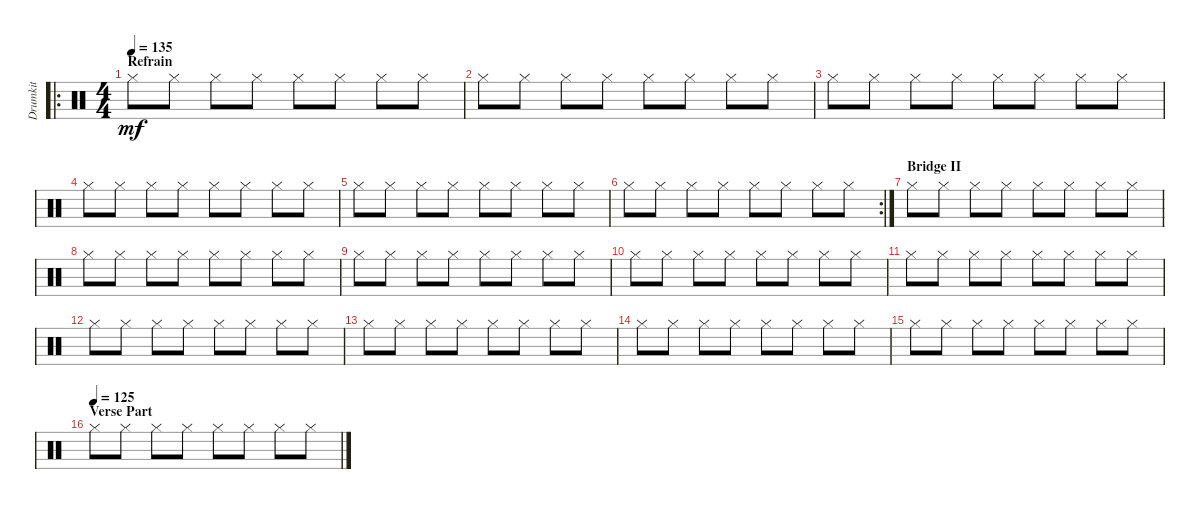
\track ("Drumkit" "Drumkit") {mute instrument percussion}
\staff {score}
\articulation defaults
\ro
\ts (4 4)
\section ("" "Refrain")
\tempo 135
\clef neutral
\ks c "Hi-Hat (closed)".8{dy mf} "Hi-Hat (closed)".8 "Hi-Hat (closed)".8 "Hi-Hat (closed)".8 "Hi-Hat (closed)".8 "Hi-Hat (closed)".8 "Hi-Hat (closed)".8 "Hi-Hat (closed)".8
|
"Hi-Hat (closed)".8 "Hi-Hat (closed)".8 "Hi-Hat (closed)".8 "Hi-Hat (closed)".8 "Hi-Hat (closed)".8 "Hi-Hat (closed)".8 "Hi-Hat (closed)".8 "Hi-Hat (closed)".8 |
"Hi-Hat (closed)".8 "Hi-Hat (closed)".8 "Hi-Hat (closed)".8 "Hi-Hat (closed)".8 "Hi-Hat (closed)".8 "Hi-Hat (closed)".8 "Hi-Hat (closed)".8 "Hi-Hat (closed)".8 |
"Hi-Hat (closed)".8 "Hi-Hat (closed)".8 "Hi-Hat (closed)".8 "Hi-Hat (closed)".8 "Hi-Hat (closed)".8 "Hi-Hat (closed)".8 "Hi-Hat (closed)".8 "Hi-Hat (closed)".8 |
"Hi-Hat (closed)".8 "Hi-Hat (closed)".8 "Hi-Hat (closed)".8 "Hi-Hat (closed)".8 "Hi-Hat (closed)".8 "Hi-Hat (closed)".8 "Hi-Hat (closed)".8 "Hi-Hat (closed)".8 |
\rc 2 "Hi-Hat (closed)".8 "Hi-Hat (closed)".8 "Hi-Hat (closed)".8 "Hi-Hat (closed)".8 "Hi-Hat (closed)".8 "Hi-Hat (closed)".8 "Hi-Hat (closed)".8 "Hi-Hat (closed)".8
|
\section ("" "Bridge II")
"Hi-Hat (closed)".8 "Hi-Hat (closed)".8 "Hi-Hat (closed)".8 "Hi-Hat (closed)".8 "Hi-Hat (closed)".8 "Hi-Hat (closed)".8 "Hi-Hat (closed)".8 "Hi-Hat (closed)".8 |
"Hi-Hat (closed)".8 "Hi-Hat (closed)".8 "Hi-Hat (closed)".8 "Hi-Hat (closed)".8 "Hi-Hat (closed)".8 "Hi-Hat (closed)".8 "Hi-Hat (closed)".8 "Hi-Hat (closed)".8 |
"Hi-Hat (closed)".8 "Hi-Hat (closed)".8 "Hi-Hat (closed)".8 "Hi-Hat (closed)".8 "Hi-Hat (closed)".8 "Hi-Hat (closed)".8 "Hi-Hat (closed)".8 "Hi-Hat (closed)".8 |
"Hi-Hat (closed)".8 "Hi-Hat (closed)".8 "Hi-Hat (closed)".8 "Hi-Hat (closed)".8 "Hi-Hat (closed)".8 "Hi-Hat (closed)".8 "Hi-Hat (closed)".8 "Hi-Hat (closed)".8 |
"Hi-Hat (closed)".8 "Hi-Hat (closed)".8 "Hi-Hat (closed)".8 "Hi-Hat (closed)".8 "Hi-Hat (closed)".8 "Hi-Hat (closed)".8 "Hi-Hat (closed)".8 "Hi-Hat (closed)".8 |
"Hi-Hat (closed)".8 "Hi-Hat (closed)".8 "Hi-Hat (closed)".8 "Hi-Hat (closed)".8 "Hi-Hat (closed)".8 "Hi-Hat (closed)".8 "Hi-Hat (closed)".8 "Hi-Hat (closed)".8 |
"Hi-Hat (closed)".8 "Hi-Hat (closed)".8 "Hi-Hat (closed)".8 "Hi-Hat (closed)".8 "Hi-Hat (closed)".8 "Hi-Hat (closed)".8 "Hi-Hat (closed)".8 "Hi-Hat (closed)".8 |
"Hi-Hat (closed)".8 "Hi-Hat (closed)".8 "Hi-Hat (closed)".8 "Hi-Hat (closed)".8 "Hi-Hat (closed)".8 "Hi-Hat (closed)".8 "Hi-Hat (closed)".8 "Hi-Hat (closed)".8 |
"Hi-Hat (closed)".8 "Hi-Hat (closed)".8 "Hi-Hat (closed)".8 "Hi-Hat (closed)".8 "Hi-Hat (closed)".8 "Hi-Hat (closed)".8 "Hi-Hat (closed)".8 "Hi-Hat (closed)".8 |
\section ("" "Verse Part")
\tempo (125)
"Hi-Hat (closed)".8 "Hi-Hat (closed)".8 "Hi-Hat (closed)".8 "Hi-Hat (closed)".8 "Hi-Hat (closed)".8 "Hi-Hat (closed)".8 "Hi-Hat (closed)".8 "Hi-Hat (closed)".8
